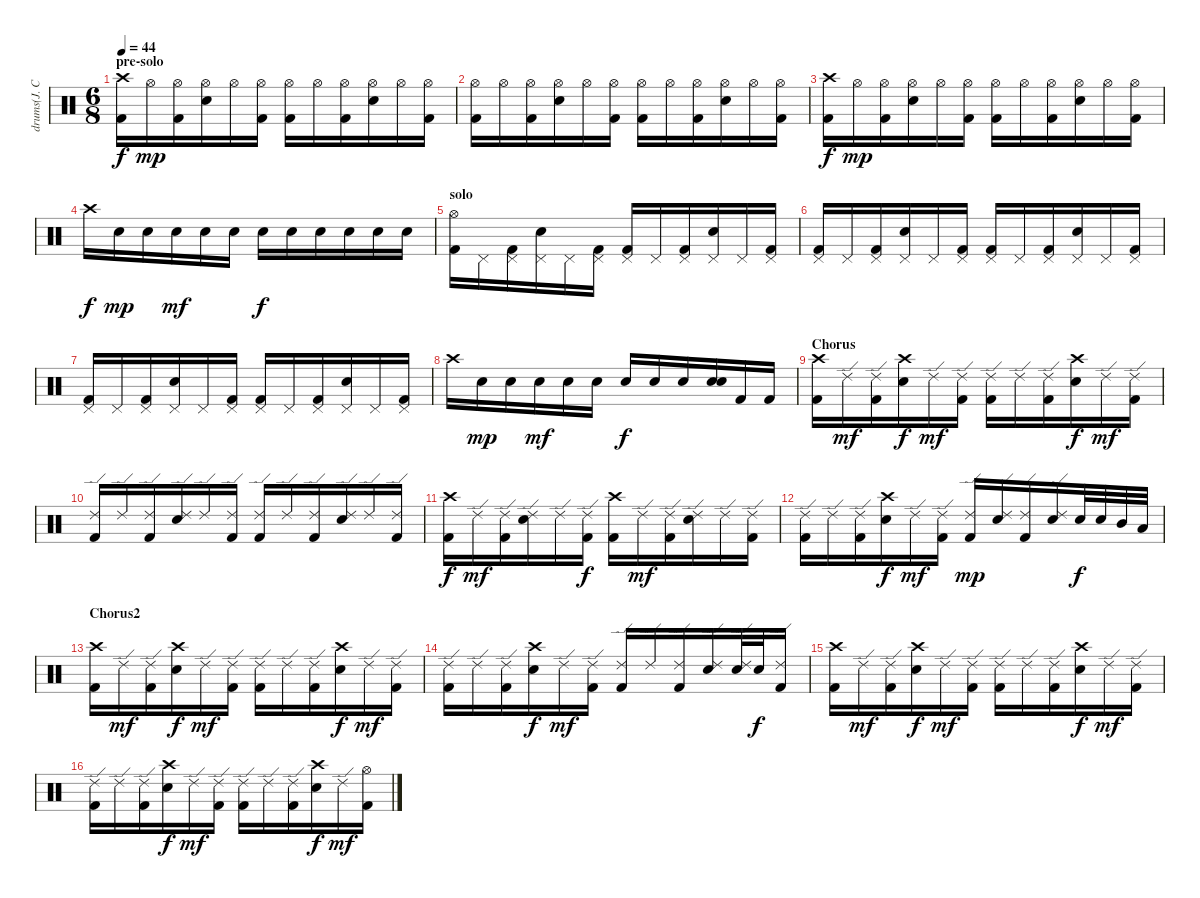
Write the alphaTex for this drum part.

\track ("drums(J. Cramer)" "drums(J. C") {instrument percussion}
\staff {score}
\articulation defaults
\ts (6 8)
\section ("" "pre-solo")
\tempo 44
\clef neutral
\ks c
("Kick (hit) 2" "Crash high (hit)").16{dy f} "Hi-Hat (open)".16{dy mp} ("Hi-Hat (open)" "Kick (hit) 2").16 ("Hi-Hat (open)" "Electric Snare (hit)").16 "Hi-Hat (open)".16 ("Hi-Hat (open)" "Kick (hit) 2").16 ("Hi-Hat (open)" "Kick (hit) 2").16 "Hi-Hat (open)".16 ("Hi-Hat (open)" "Kick (hit) 2").16 ("Hi-Hat (open)" "Electric Snare (hit)").16 "Hi-Hat (open)".16 ("Hi-Hat (open)" "Kick (hit) 2").16 |
("Hi-Hat (open)" "Kick (hit) 2").16 "Hi-Hat (open)".16 ("Hi-Hat (open)" "Kick (hit) 2").16 ("Hi-Hat (open)" "Electric Snare (hit)").16 "Hi-Hat (open)".16 ("Hi-Hat (open)" "Kick (hit) 2").16 ("Hi-Hat (open)" "Kick (hit) 2").16 "Hi-Hat (open)".16 ("Hi-Hat (open)" "Kick (hit) 2").16 ("Hi-Hat (open)" "Electric Snare (hit)").16 "Hi-Hat (open)".16 ("Hi-Hat (open)" "Kick (hit) 2").16 |
("Kick (hit) 2" "Crash high (hit)").16{dy f} "Hi-Hat (open)".16{dy mp} ("Hi-Hat (open)" "Kick (hit) 2").16 ("Hi-Hat (open)" "Electric Snare (hit)").16 "Hi-Hat (open)".16 ("Hi-Hat (open)" "Kick (hit) 2").16 ("Hi-Hat (open)" "Kick (hit) 2").16 "Hi-Hat (open)".16 ("Hi-Hat (open)" "Kick (hit) 2").16 ("Hi-Hat (open)" "Electric Snare (hit)").16 "Hi-Hat (open)".16 ("Hi-Hat (open)" "Kick (hit) 2").16 |
"Crash high (hit)".16{dy f} "Electric Snare (hit)".16{dy mp} "Electric Snare (hit)".16 "Electric Snare (hit)".16{dy mf} "Electric Snare (hit)".16 "Electric Snare (hit)".16 "Electric Snare (hit)".16{dy f} "Electric Snare (hit)".16 "Electric Snare (hit)".16 "Electric Snare (hit)".16 "Electric Snare (hit)".16 "Electric Snare (hit)".16 |
\section ("" "solo")
("Hi-Hat (open)" "Kick (hit) 2").16 "Pedal Hi-Hat (hit)".16 ("Pedal Hi-Hat (hit)" "Kick (hit) 2").16 ("Pedal Hi-Hat (hit)" "Electric Snare (hit)").16 "Pedal Hi-Hat (hit)".16 ("Pedal Hi-Hat (hit)" "Kick (hit) 2").16 ("Pedal Hi-Hat (hit)" "Kick (hit) 2").16 "Pedal Hi-Hat (hit)".16 ("Pedal Hi-Hat (hit)" "Kick (hit) 2").16 ("Pedal Hi-Hat (hit)" "Electric Snare (hit)").16 "Pedal Hi-Hat (hit)".16 ("Pedal Hi-Hat (hit)" "Kick (hit) 2").16 |
("Pedal Hi-Hat (hit)" "Kick (hit) 2").16 "Pedal Hi-Hat (hit)".16 ("Pedal Hi-Hat (hit)" "Kick (hit) 2").16 ("Pedal Hi-Hat (hit)" "Electric Snare (hit)").16 "Pedal Hi-Hat (hit)".16 ("Pedal Hi-Hat (hit)" "Kick (hit) 2").16 ("Pedal Hi-Hat (hit)" "Kick (hit) 2").16 "Pedal Hi-Hat (hit)".16 ("Pedal Hi-Hat (hit)" "Kick (hit) 2").16 ("Pedal Hi-Hat (hit)" "Electric Snare (hit)").16 "Pedal Hi-Hat (hit)".16 ("Pedal Hi-Hat (hit)" "Kick (hit) 2").16 |
("Pedal Hi-Hat (hit)" "Kick (hit) 2").16 "Pedal Hi-Hat (hit)".16 ("Pedal Hi-Hat (hit)" "Kick (hit) 2").16 ("Pedal Hi-Hat (hit)" "Electric Snare (hit)").16 "Pedal Hi-Hat (hit)".16 ("Pedal Hi-Hat (hit)" "Kick (hit) 2").16 ("Pedal Hi-Hat (hit)" "Kick (hit) 2").16 "Pedal Hi-Hat (hit)".16 ("Pedal Hi-Hat (hit)" "Kick (hit) 2").16 ("Pedal Hi-Hat (hit)" "Electric Snare (hit)").16 "Pedal Hi-Hat (hit)".16 ("Pedal Hi-Hat (hit)" "Kick (hit) 2").16 |
"Crash high (hit)".16 "Electric Snare (hit)".16{dy mp} "Electric Snare (hit)".16 "Electric Snare (hit)".16{dy mf} "Electric Snare (hit)".16 "Electric Snare (hit)".16 "Electric Snare (hit)".16{dy f} "Electric Snare (hit)".16 "Electric Snare (hit)".16 ("Electric Snare (hit)" "Snare (hit) 2").16 "Kick (hit) 2".16 "Kick (hit) 2".16 |
\section ("" "Chorus")
("Kick (hit) 2" "Crash high (hit)").16 "Ride (edge) 2".16{dy mf} ("Ride (edge) 2" "Kick (hit) 2").16 ("Electric Snare (hit)" "Crash high (hit)").16{dy f} "Ride (edge) 2".16{dy mf} ("Ride (edge) 2" "Kick (hit) 2").16 ("Ride (edge) 2" "Kick (hit) 2").16 "Ride (edge) 2".16 ("Ride (edge) 2" "Kick (hit) 2").16 ("Electric Snare (hit)" "Crash high (hit)").16{dy f} "Ride (edge) 2".16{dy mf} ("Ride (edge) 2" "Kick (hit) 2").16 |
("Ride (edge) 2" "Kick (hit) 2").16 "Ride (edge) 2".16 ("Ride (edge) 2" "Kick (hit) 2").16 ("Ride (edge) 2" "Electric Snare (hit)").16 "Ride (edge) 2".16 ("Ride (edge) 2" "Kick (hit) 2").16 ("Ride (edge) 2" "Kick (hit) 2").16 "Ride (edge) 2".16 ("Ride (edge) 2" "Kick (hit) 2").16 ("Ride (edge) 2" "Electric Snare (hit)").16 "Ride (edge) 2".16 ("Ride (edge) 2" "Kick (hit) 2").16 |
("Kick (hit) 2" "Crash high (hit)").16{dy f} "Ride (edge) 2".16{dy mf} ("Ride (edge) 2" "Kick (hit) 2").16 ("Ride (edge) 2" "Electric Snare (hit)").16 "Ride (edge) 2".16 ("Ride (edge) 2" "Kick (hit) 2").16{dy f} ("Kick (hit) 2" "Crash high (hit)").16 "Ride (edge) 2".16{dy mf} ("Ride (edge) 2" "Kick (hit) 2").16 ("Ride (edge) 2" "Electric Snare (hit)").16 "Ride (edge) 2".16 ("Ride (edge) 2" "Kick (hit) 2").16 |
("Ride (edge) 2" "Kick (hit) 2").16 "Ride (edge) 2".16 ("Ride (edge) 2" "Kick (hit) 2").16 ("Electric Snare (hit)" "Crash high (hit)").16{dy f} "Ride (edge) 2".16{dy mf} ("Ride (edge) 2" "Kick (hit) 2").16 ("Ride (edge) 2" "Kick (hit) 2").16{dy mp} ("Ride (edge) 2" "Electric Snare (hit)").16 ("Ride (edge) 2" "Kick (hit) 2").16 ("Ride (edge) 2" "Electric Snare (hit)").16 "Electric Snare (hit)".32{dy f} "Electric Snare (hit)".32 "Mid Tom (hit)".32 "Low Tom (hit)".32 |
\section ("" "Chorus2")
("Kick (hit) 2" "Crash high (hit)").16 "Ride (edge) 2".16{dy mf} ("Ride (edge) 2" "Kick (hit) 2").16 ("Electric Snare (hit)" "Crash high (hit)").16{dy f} "Ride (edge) 2".16{dy mf} ("Ride (edge) 2" "Kick (hit) 2").16 ("Ride (edge) 2" "Kick (hit) 2").16 "Ride (edge) 2".16 ("Ride (edge) 2" "Kick (hit) 2").16 ("Electric Snare (hit)" "Crash high (hit)").16{dy f} "Ride (edge) 2".16{dy mf} ("Ride (edge) 2" "Kick (hit) 2").16 |
("Ride (edge) 2" "Kick (hit) 2").16 "Ride (edge) 2".16 ("Ride (edge) 2" "Kick (hit) 2").16 ("Electric Snare (hit)" "Crash high (hit)").16{dy f} "Ride (edge) 2".16{dy mf} ("Ride (edge) 2" "Kick (hit) 2").16 ("Ride (edge) 2" "Kick (hit) 2").16 "Ride (edge) 2".16 ("Ride (edge) 2" "Kick (hit) 2").16 ("Ride (edge) 2" "Electric Snare (hit)").16 ("Ride (edge) 2" "Electric Snare (hit)").32 "Electric Snare (hit)".32{dy f} ("Ride (edge) 2" "Kick (hit) 2").16 |
("Kick (hit) 2" "Crash high (hit)").16 "Ride (edge) 2".16{dy mf} ("Ride (edge) 2" "Kick (hit) 2").16 ("Electric Snare (hit)" "Crash high (hit)").16{dy f} "Ride (edge) 2".16{dy mf} ("Ride (edge) 2" "Kick (hit) 2").16 ("Ride (edge) 2" "Kick (hit) 2").16 "Ride (edge) 2".16 ("Ride (edge) 2" "Kick (hit) 2").16 ("Electric Snare (hit)" "Crash high (hit)").16{dy f} "Ride (edge) 2".16{dy mf} ("Ride (edge) 2" "Kick (hit) 2").16 |
("Ride (edge) 2" "Kick (hit) 2").16 "Ride (edge) 2".16 ("Ride (edge) 2" "Kick (hit) 2").16 ("Electric Snare (hit)" "Crash high (hit)").16{dy f} "Ride (edge) 2".16{dy mf} ("Ride (edge) 2" "Kick (hit) 2").16 ("Ride (edge) 2" "Kick (hit) 2").16 "Ride (edge) 2".16 ("Ride (edge) 2" "Kick (hit) 2").16 ("Electric Snare (hit)" "Crash high (hit)").16{dy f} "Ride (edge) 2".16{dy mf} ("Hi-Hat (open)" "Kick (hit) 2").16
